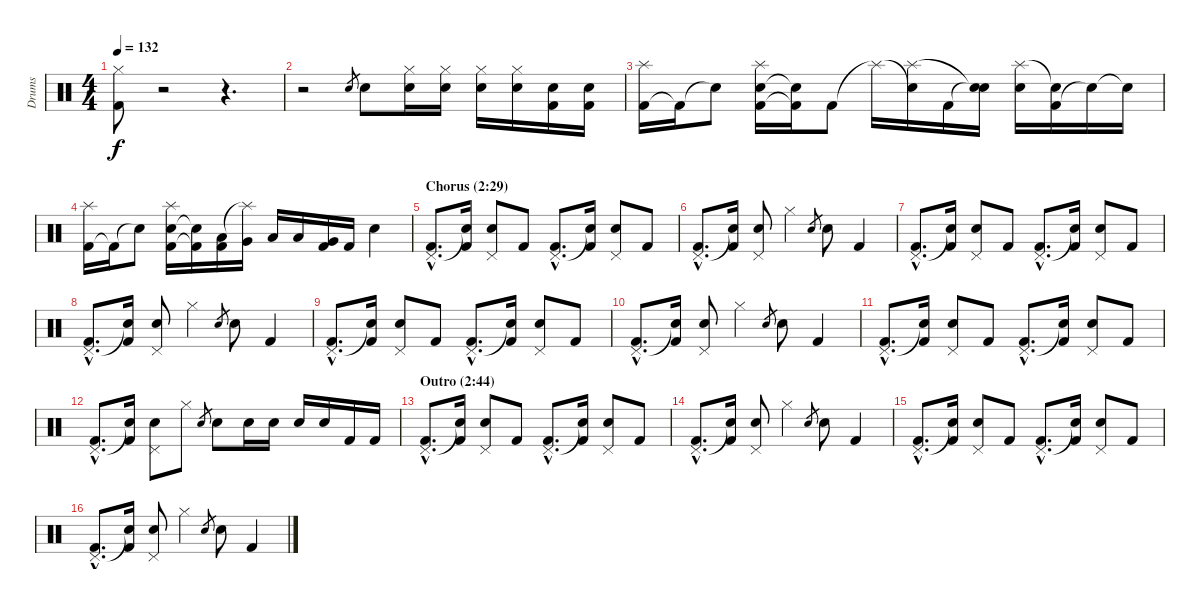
\track ("Drums" "Drums") {instrument percussion}
\staff {score}
\articulation defaults
\ts (4 4)
\tempo 132
\clef neutral
\ks aminor
("Kick (hit) 2" "Hi-Hat (closed)").8{dy f} r.2 r.4{d} |
r.2 "Electric Snare (hit)".8{gr} "Electric Snare (hit)".8 ("Snare (hit) 2" "Hi-Hat (closed)").16 ("Snare (hit) 2" "Hi-Hat (closed)").16 ("Snare (hit) 2" "Hi-Hat (closed)").16 ("Snare (hit) 2" "Hi-Hat (closed)").16 ("Kick (hit) 2" "Electric Snare (hit)").16 ("Kick (hit) 2" "Electric Snare (hit)").16 |
("Kick (hit) 2" "Splash (hit)").16 "Kick (hit) 2"{t}.16 "Snare (hit)"{t}.8 ("Kick (hit) 2" "Electric Snare (hit)" "Splash (hit)").16 ("Kick (hit) 2"{t} "Snare (hit)"{t}).16 "Kick (hit) 2".8 "Splash (hit)"{t}.16 ("Snare (hit)"{t} "Splash (hit)").16 "Kick (hit) 2".16 ("Snare (hit)"{t} "Snare (hit)"{t}).16 ("Electric Snare (hit)" "Splash (hit)").16 ("Kick (hit) 2" "Snare (hit)"{t}).16 "Snare (hit)"{t}.16 "Snare (hit)"{t}.16 |
("Kick (hit) 2" "Splash (hit)").16 "Kick (hit) 2"{t}.16 "Snare (hit)"{t}.8 ("Kick (hit) 2" "Electric Snare (hit)" "Splash (hit)").16 ("Kick (hit) 2"{t} "Snare (hit)"{t}).16 ("Kick (hit) 2" "Low Tom (hit)").16 ("Very Low Tom (hit)" "Splash (hit)"{t}).16 "Low Floor Tom (hit)".16 "Low Tom (hit)".16 ("Kick (hit) 2" "Very Low Tom (hit)").16 "Kick (hit) 2".16 "Electric Snare (hit)".4 |
\section ("" "Chorus (2:29)")
("Kick (hit) 2"{hac} "Pedal Hi-Hat (hit)"{hac}).8{d} ("Kick (hit) 2" "Snare (hit)"{t}).16 ("Electric Snare (hit)" "Pedal Hi-Hat (hit)").8 "Kick (hit) 2".8 ("Kick (hit) 2"{hac} "Pedal Hi-Hat (hit)"{hac}).8{d} ("Kick (hit) 2" "Snare (hit)"{t}).16 ("Electric Snare (hit)" "Pedal Hi-Hat (hit)").8 "Kick (hit) 2".8 |
("Kick (hit) 2"{hac} "Pedal Hi-Hat (hit)"{hac}).8{d} ("Kick (hit) 2" "Snare (hit)"{t}).16 ("Electric Snare (hit)" "Pedal Hi-Hat (hit)").8 "Hi-Hat (closed)".4 "Electric Snare (hit)".8{gr} "Electric Snare (hit)".8 "Kick (hit) 2".4 |
("Kick (hit) 2"{hac} "Pedal Hi-Hat (hit)"{hac}).8{d} ("Kick (hit) 2" "Snare (hit)"{t}).16 ("Electric Snare (hit)" "Pedal Hi-Hat (hit)").8 "Kick (hit) 2".8 ("Kick (hit) 2"{hac} "Pedal Hi-Hat (hit)"{hac}).8{d} ("Kick (hit) 2" "Snare (hit)"{t}).16 ("Electric Snare (hit)" "Pedal Hi-Hat (hit)").8 "Kick (hit) 2".8 |
("Kick (hit) 2"{hac} "Pedal Hi-Hat (hit)"{hac}).8{d} ("Kick (hit) 2" "Snare (hit)"{t}).16 ("Electric Snare (hit)" "Pedal Hi-Hat (hit)").8 "Hi-Hat (closed)".4 "Electric Snare (hit)".8{gr} "Electric Snare (hit)".8 "Kick (hit) 2".4 |
("Kick (hit) 2"{hac} "Pedal Hi-Hat (hit)"{hac}).8{d} ("Kick (hit) 2" "Snare (hit)"{t}).16 ("Electric Snare (hit)" "Pedal Hi-Hat (hit)").8 "Kick (hit) 2".8 ("Kick (hit) 2"{hac} "Pedal Hi-Hat (hit)"{hac}).8{d} ("Kick (hit) 2" "Snare (hit)"{t}).16 ("Electric Snare (hit)" "Pedal Hi-Hat (hit)").8 "Kick (hit) 2".8 |
("Kick (hit) 2"{hac} "Pedal Hi-Hat (hit)"{hac}).8{d} ("Kick (hit) 2" "Snare (hit)"{t}).16 ("Electric Snare (hit)" "Pedal Hi-Hat (hit)").8 "Hi-Hat (closed)".4 "Electric Snare (hit)".8{gr} "Electric Snare (hit)".8 "Kick (hit) 2".4 |
("Kick (hit) 2"{hac} "Pedal Hi-Hat (hit)"{hac}).8{d} ("Kick (hit) 2" "Snare (hit)"{t}).16 ("Electric Snare (hit)" "Pedal Hi-Hat (hit)").8 "Kick (hit) 2".8 ("Kick (hit) 2"{hac} "Pedal Hi-Hat (hit)"{hac}).8{d} ("Kick (hit) 2" "Snare (hit)"{t}).16 ("Electric Snare (hit)" "Pedal Hi-Hat (hit)").8 "Kick (hit) 2".8 |
("Kick (hit) 2"{hac} "Pedal Hi-Hat (hit)"{hac}).8{d} ("Kick (hit) 2" "Snare (hit)"{t}).16 ("Electric Snare (hit)" "Pedal Hi-Hat (hit)").8 "Hi-Hat (closed)".8 "Electric Snare (hit)".8{gr} "Electric Snare (hit)".8 "Electric Snare (hit)".16 "Electric Snare (hit)".16 "Snare (hit) 2".16 "Snare (hit) 2".16 "Kick (hit) 2".16 "Kick (hit) 2".16 |
\section ("" "Outro (2:44)")
("Kick (hit) 2"{hac} "Pedal Hi-Hat (hit)"{hac}).8{d} ("Kick (hit) 2" "Snare (hit)"{t}).16 ("Electric Snare (hit)" "Pedal Hi-Hat (hit)").8 "Kick (hit) 2".8 ("Kick (hit) 2"{hac} "Pedal Hi-Hat (hit)"{hac}).8{d} ("Kick (hit) 2" "Snare (hit)"{t}).16 ("Electric Snare (hit)" "Pedal Hi-Hat (hit)").8 "Kick (hit) 2".8 |
("Kick (hit) 2"{hac} "Pedal Hi-Hat (hit)"{hac}).8{d} ("Kick (hit) 2" "Snare (hit)"{t}).16 ("Electric Snare (hit)" "Pedal Hi-Hat (hit)").8 "Hi-Hat (closed)".4 "Electric Snare (hit)".8{gr} "Electric Snare (hit)".8 "Kick (hit) 2".4 |
("Kick (hit) 2"{hac} "Pedal Hi-Hat (hit)"{hac}).8{d} ("Kick (hit) 2" "Snare (hit)"{t}).16 ("Electric Snare (hit)" "Pedal Hi-Hat (hit)").8 "Kick (hit) 2".8 ("Kick (hit) 2"{hac} "Pedal Hi-Hat (hit)"{hac}).8{d} ("Kick (hit) 2" "Snare (hit)"{t}).16 ("Electric Snare (hit)" "Pedal Hi-Hat (hit)").8 "Kick (hit) 2".8 |
("Kick (hit) 2"{hac} "Pedal Hi-Hat (hit)"{hac}).8{d} ("Kick (hit) 2" "Snare (hit)"{t}).16 ("Electric Snare (hit)" "Pedal Hi-Hat (hit)").8 "Hi-Hat (closed)".4 "Electric Snare (hit)".8{gr} "Electric Snare (hit)".8 "Kick (hit) 2".4
